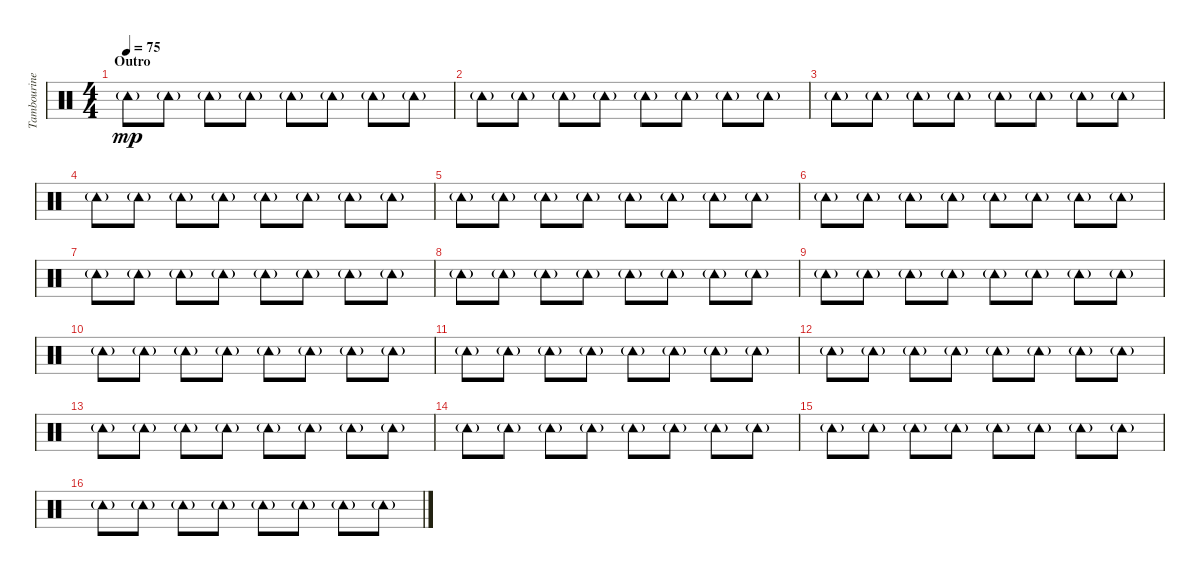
\track ("Tambourine" "Tambourine") {instrument percussion}
\staff {score}
\articulation defaults
\ts (4 4)
\section ("" "Outro")
\tempo 75
\clef neutral
\ks c "Tambourine (hit)"{g}.8{dy mp} "Tambourine (hit)"{g}.8 "Tambourine (hit)"{g}.8 "Tambourine (hit)"{g}.8 "Tambourine (hit)"{g}.8 "Tambourine (hit)"{g}.8 "Tambourine (hit)"{g}.8 "Tambourine (hit)"{g}.8
|
"Tambourine (hit)"{g}.8 "Tambourine (hit)"{g}.8 "Tambourine (hit)"{g}.8 "Tambourine (hit)"{g}.8 "Tambourine (hit)"{g}.8 "Tambourine (hit)"{g}.8 "Tambourine (hit)"{g}.8 "Tambourine (hit)"{g}.8 |
"Tambourine (hit)"{g}.8 "Tambourine (hit)"{g}.8 "Tambourine (hit)"{g}.8 "Tambourine (hit)"{g}.8 "Tambourine (hit)"{g}.8 "Tambourine (hit)"{g}.8 "Tambourine (hit)"{g}.8 "Tambourine (hit)"{g}.8 |
"Tambourine (hit)"{g}.8 "Tambourine (hit)"{g}.8 "Tambourine (hit)"{g}.8 "Tambourine (hit)"{g}.8 "Tambourine (hit)"{g}.8 "Tambourine (hit)"{g}.8 "Tambourine (hit)"{g}.8 "Tambourine (hit)"{g}.8 |
"Tambourine (hit)"{g}.8 "Tambourine (hit)"{g}.8 "Tambourine (hit)"{g}.8 "Tambourine (hit)"{g}.8 "Tambourine (hit)"{g}.8 "Tambourine (hit)"{g}.8 "Tambourine (hit)"{g}.8 "Tambourine (hit)"{g}.8 |
"Tambourine (hit)"{g}.8 "Tambourine (hit)"{g}.8 "Tambourine (hit)"{g}.8 "Tambourine (hit)"{g}.8 "Tambourine (hit)"{g}.8 "Tambourine (hit)"{g}.8 "Tambourine (hit)"{g}.8 "Tambourine (hit)"{g}.8 |
"Tambourine (hit)"{g}.8 "Tambourine (hit)"{g}.8 "Tambourine (hit)"{g}.8 "Tambourine (hit)"{g}.8 "Tambourine (hit)"{g}.8 "Tambourine (hit)"{g}.8 "Tambourine (hit)"{g}.8 "Tambourine (hit)"{g}.8 |
"Tambourine (hit)"{g}.8 "Tambourine (hit)"{g}.8 "Tambourine (hit)"{g}.8 "Tambourine (hit)"{g}.8 "Tambourine (hit)"{g}.8 "Tambourine (hit)"{g}.8 "Tambourine (hit)"{g}.8 "Tambourine (hit)"{g}.8 |
"Tambourine (hit)"{g}.8 "Tambourine (hit)"{g}.8 "Tambourine (hit)"{g}.8 "Tambourine (hit)"{g}.8 "Tambourine (hit)"{g}.8 "Tambourine (hit)"{g}.8 "Tambourine (hit)"{g}.8 "Tambourine (hit)"{g}.8 |
"Tambourine (hit)"{g}.8 "Tambourine (hit)"{g}.8 "Tambourine (hit)"{g}.8 "Tambourine (hit)"{g}.8 "Tambourine (hit)"{g}.8 "Tambourine (hit)"{g}.8 "Tambourine (hit)"{g}.8 "Tambourine (hit)"{g}.8 |
"Tambourine (hit)"{g}.8 "Tambourine (hit)"{g}.8 "Tambourine (hit)"{g}.8 "Tambourine (hit)"{g}.8 "Tambourine (hit)"{g}.8 "Tambourine (hit)"{g}.8 "Tambourine (hit)"{g}.8 "Tambourine (hit)"{g}.8 |
"Tambourine (hit)"{g}.8 "Tambourine (hit)"{g}.8 "Tambourine (hit)"{g}.8 "Tambourine (hit)"{g}.8 "Tambourine (hit)"{g}.8 "Tambourine (hit)"{g}.8 "Tambourine (hit)"{g}.8 "Tambourine (hit)"{g}.8 |
"Tambourine (hit)"{g}.8 "Tambourine (hit)"{g}.8 "Tambourine (hit)"{g}.8 "Tambourine (hit)"{g}.8 "Tambourine (hit)"{g}.8 "Tambourine (hit)"{g}.8 "Tambourine (hit)"{g}.8 "Tambourine (hit)"{g}.8 |
"Tambourine (hit)"{g}.8 "Tambourine (hit)"{g}.8 "Tambourine (hit)"{g}.8 "Tambourine (hit)"{g}.8 "Tambourine (hit)"{g}.8 "Tambourine (hit)"{g}.8 "Tambourine (hit)"{g}.8 "Tambourine (hit)"{g}.8 |
"Tambourine (hit)"{g}.8 "Tambourine (hit)"{g}.8 "Tambourine (hit)"{g}.8 "Tambourine (hit)"{g}.8 "Tambourine (hit)"{g}.8 "Tambourine (hit)"{g}.8 "Tambourine (hit)"{g}.8 "Tambourine (hit)"{g}.8 |
"Tambourine (hit)"{g}.8 "Tambourine (hit)"{g}.8 "Tambourine (hit)"{g}.8 "Tambourine (hit)"{g}.8 "Tambourine (hit)"{g}.8 "Tambourine (hit)"{g}.8 "Tambourine (hit)"{g}.8 "Tambourine (hit)"{g}.8
